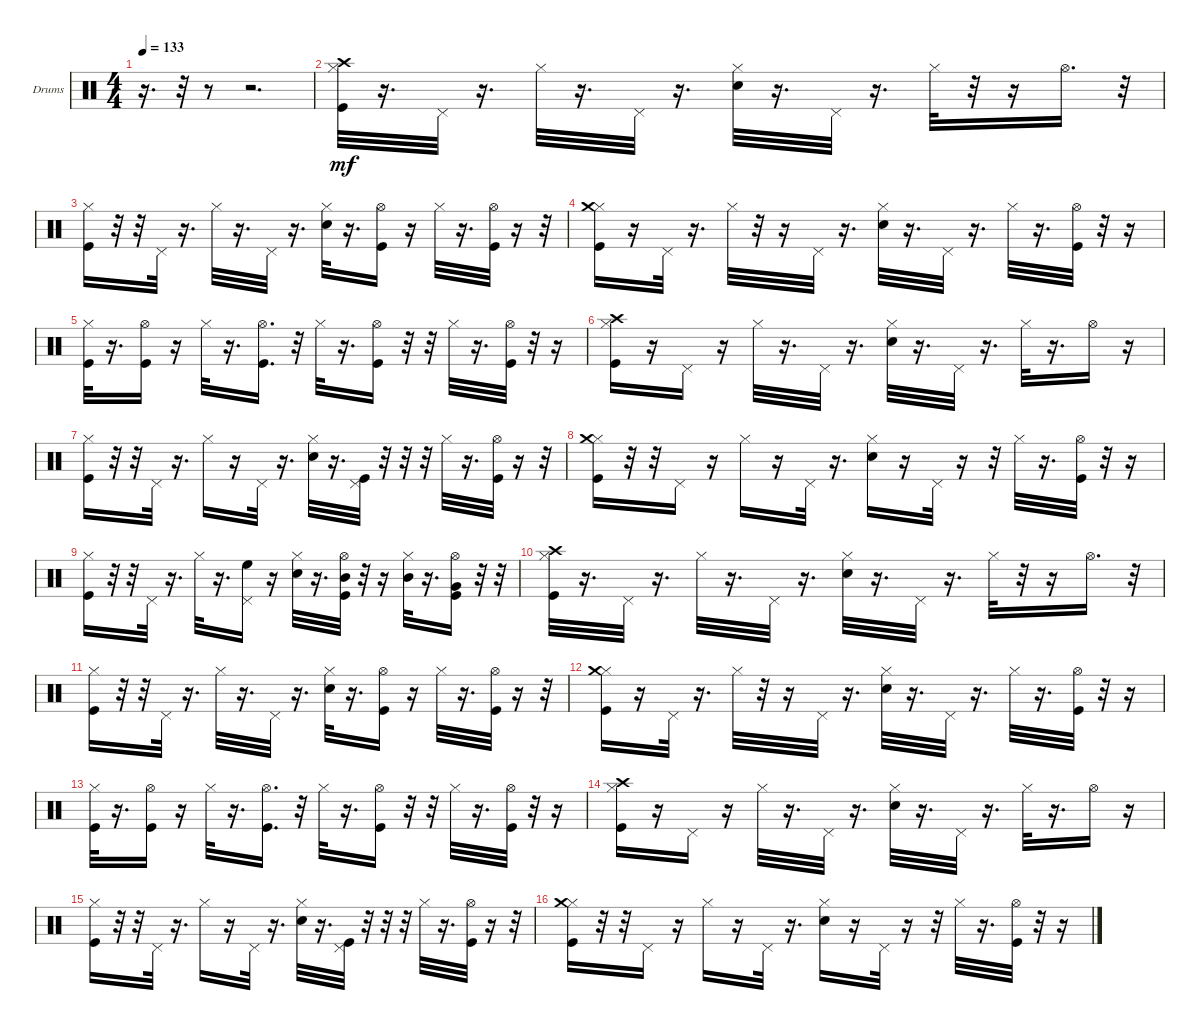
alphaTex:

\defaultSystemsLayout 4
\bracketExtendMode groupsimilarinstruments
\firstSystemTrackNameOrientation horizontal
\otherSystemsTrackNameOrientation horizontal
\track ("Drumkit" "Drums") {instrument percussion}
\staff {score}
\articulation defaults
\ts (4 4)
\tempo 133
\clef neutral
\ks c
r.16{d dy mf} r.32 r.8 r.2{d} |
("Kick (hit)" "Hi-Hat (closed)" "Crash high (hit)").32 r.16{d} "Pedal Hi-Hat (hit)".32 r.16{d} "Hi-Hat (closed)".32 r.16{d} "Pedal Hi-Hat (hit)".32 r.16{d} ("Snare (hit) 2" "Hi-Hat (closed)").32 r.16{d} "Pedal Hi-Hat (hit)".32 r.16{d} "Hi-Hat (closed)".32 r.32 r.16 "Hi-Hat (open)".16{d} r.32 |
("Kick (hit)" "Hi-Hat (closed)").16 r.32 r.32 "Pedal Hi-Hat (hit)".32 r.16{d} "Hi-Hat (closed)".32 r.16{d} "Pedal Hi-Hat (hit)".32 r.16{d} ("Snare (hit) 2" "Hi-Hat (closed)").32 r.16{d} ("Kick (hit)" "Hi-Hat (open)").16 r.16 "Hi-Hat (closed)".32 r.16{d} ("Kick (hit)" "Hi-Hat (open)").32 r.16 r.32 |
("Kick (hit)" "Hi-Hat (closed)" "Crash medium (hit)").16 r.16 "Pedal Hi-Hat (hit)".32 r.16{d} "Hi-Hat (closed)".32 r.32 r.16 "Pedal Hi-Hat (hit)".32 r.16{d} ("Snare (hit) 2" "Hi-Hat (closed)").32 r.16{d} "Pedal Hi-Hat (hit)".32 r.16{d} "Hi-Hat (closed)".32 r.16{d} ("Kick (hit)" "Hi-Hat (open)").32 r.32 r.16 |
("Kick (hit)" "Hi-Hat (closed)").32 r.16{d} ("Kick (hit)" "Hi-Hat (open)").16 r.16 "Hi-Hat (closed)".32 r.16{d} ("Kick (hit)" "Hi-Hat (open)").16{d} r.32 "Hi-Hat (closed)".32 r.16{d} ("Kick (hit)" "Hi-Hat (open)").16 r.32 r.32 "Hi-Hat (closed)".32 r.16{d} ("Kick (hit)" "Hi-Hat (open)").32 r.32 r.16 |
("Kick (hit)" "Hi-Hat (closed)" "Crash high (hit)").16 r.16 "Pedal Hi-Hat (hit)".16 r.16 "Hi-Hat (closed)".32 r.16{d} "Pedal Hi-Hat (hit)".32 r.16{d} ("Snare (hit) 2" "Hi-Hat (closed)").32 r.16{d} "Pedal Hi-Hat (hit)".32 r.16{d} "Hi-Hat (closed)".32 r.16{d} "Hi-Hat (open)".16 r.16 |
("Kick (hit)" "Hi-Hat (closed)").16 r.32 r.32 "Pedal Hi-Hat (hit)".32 r.16{d} "Hi-Hat (closed)".16 r.16 "Pedal Hi-Hat (hit)".32 r.16{d} ("Snare (hit) 2" "Hi-Hat (closed)").32 r.16{d} ("Kick (hit)" "Pedal Hi-Hat (hit)").32 r.32 r.32 r.32 "Hi-Hat (closed)".32 r.16{d} ("Kick (hit)" "Hi-Hat (open)").32 r.16 r.32 |
("Kick (hit)" "Hi-Hat (closed)" "Crash medium (hit)").16 r.32 r.32 "Pedal Hi-Hat (hit)".16 r.16 "Hi-Hat (closed)".16 r.16 "Pedal Hi-Hat (hit)".32 r.16{d} ("Snare (hit) 2" "Hi-Hat (closed)").16 r.16 "Pedal Hi-Hat (hit)".32 r.16 r.32 "Hi-Hat (closed)".32 r.16{d} ("Kick (hit)" "Hi-Hat (open)").32 r.32 r.16 |
("Kick (hit)" "Hi-Hat (closed)").16 r.32 r.32 "Pedal Hi-Hat (hit)".32 r.16{d} "Hi-Hat (closed)".32 r.16{d} ("Pedal Hi-Hat (hit)" "High Floor Tom (hit)").16 r.16 ("Snare (hit) 2" "Hi-Hat (closed)").32 r.16{d} ("Kick (hit)" "Hi-Hat (open)" "Mid Tom (hit)").32 r.32 r.16 ("Hi-Hat (closed)" "Mid Tom (hit)").32 r.16{d} ("Kick (hit)" "Hi-Hat (open)" "Very Low Tom (hit)").16 r.32 r.32 |
("Kick (hit)" "Hi-Hat (closed)" "Crash high (hit)").32 r.16{d} "Pedal Hi-Hat (hit)".32 r.16{d} "Hi-Hat (closed)".32 r.16{d} "Pedal Hi-Hat (hit)".32 r.16{d} ("Snare (hit) 2" "Hi-Hat (closed)").32 r.16{d} "Pedal Hi-Hat (hit)".32 r.16{d} "Hi-Hat (closed)".32 r.32 r.16 "Hi-Hat (open)".16{d} r.32 |
("Kick (hit)" "Hi-Hat (closed)").16 r.32 r.32 "Pedal Hi-Hat (hit)".32 r.16{d} "Hi-Hat (closed)".32 r.16{d} "Pedal Hi-Hat (hit)".32 r.16{d} ("Snare (hit) 2" "Hi-Hat (closed)").32 r.16{d} ("Kick (hit)" "Hi-Hat (open)").16 r.16 "Hi-Hat (closed)".32 r.16{d} ("Kick (hit)" "Hi-Hat (open)").32 r.16 r.32 |
("Kick (hit)" "Hi-Hat (closed)" "Crash medium (hit)").16 r.16 "Pedal Hi-Hat (hit)".32 r.16{d} "Hi-Hat (closed)".32 r.32 r.16 "Pedal Hi-Hat (hit)".32 r.16{d} ("Snare (hit) 2" "Hi-Hat (closed)").32 r.16{d} "Pedal Hi-Hat (hit)".32 r.16{d} "Hi-Hat (closed)".32 r.16{d} ("Kick (hit)" "Hi-Hat (open)").32 r.32 r.16 |
("Kick (hit)" "Hi-Hat (closed)").32 r.16{d} ("Kick (hit)" "Hi-Hat (open)").16 r.16 "Hi-Hat (closed)".32 r.16{d} ("Kick (hit)" "Hi-Hat (open)").16{d} r.32 "Hi-Hat (closed)".32 r.16{d} ("Kick (hit)" "Hi-Hat (open)").16 r.32 r.32 "Hi-Hat (closed)".32 r.16{d} ("Kick (hit)" "Hi-Hat (open)").32 r.32 r.16 |
("Kick (hit)" "Hi-Hat (closed)" "Crash high (hit)").16 r.16 "Pedal Hi-Hat (hit)".16 r.16 "Hi-Hat (closed)".32 r.16{d} "Pedal Hi-Hat (hit)".32 r.16{d} ("Snare (hit) 2" "Hi-Hat (closed)").32 r.16{d} "Pedal Hi-Hat (hit)".32 r.16{d} "Hi-Hat (closed)".32 r.16{d} "Hi-Hat (open)".16 r.16 |
("Kick (hit)" "Hi-Hat (closed)").16 r.32 r.32 "Pedal Hi-Hat (hit)".32 r.16{d} "Hi-Hat (closed)".16 r.16 "Pedal Hi-Hat (hit)".32 r.16{d} ("Snare (hit) 2" "Hi-Hat (closed)").32 r.16{d} ("Kick (hit)" "Pedal Hi-Hat (hit)").32 r.32 r.32 r.32 "Hi-Hat (closed)".32 r.16{d} ("Kick (hit)" "Hi-Hat (open)").32 r.16 r.32 |
("Kick (hit)" "Hi-Hat (closed)" "Crash medium (hit)").16 r.32 r.32 "Pedal Hi-Hat (hit)".16 r.16 "Hi-Hat (closed)".16 r.16 "Pedal Hi-Hat (hit)".32 r.16{d} ("Snare (hit) 2" "Hi-Hat (closed)").16 r.16 "Pedal Hi-Hat (hit)".32 r.16 r.32 "Hi-Hat (closed)".32 r.16{d} ("Kick (hit)" "Hi-Hat (open)").32 r.32 r.16
